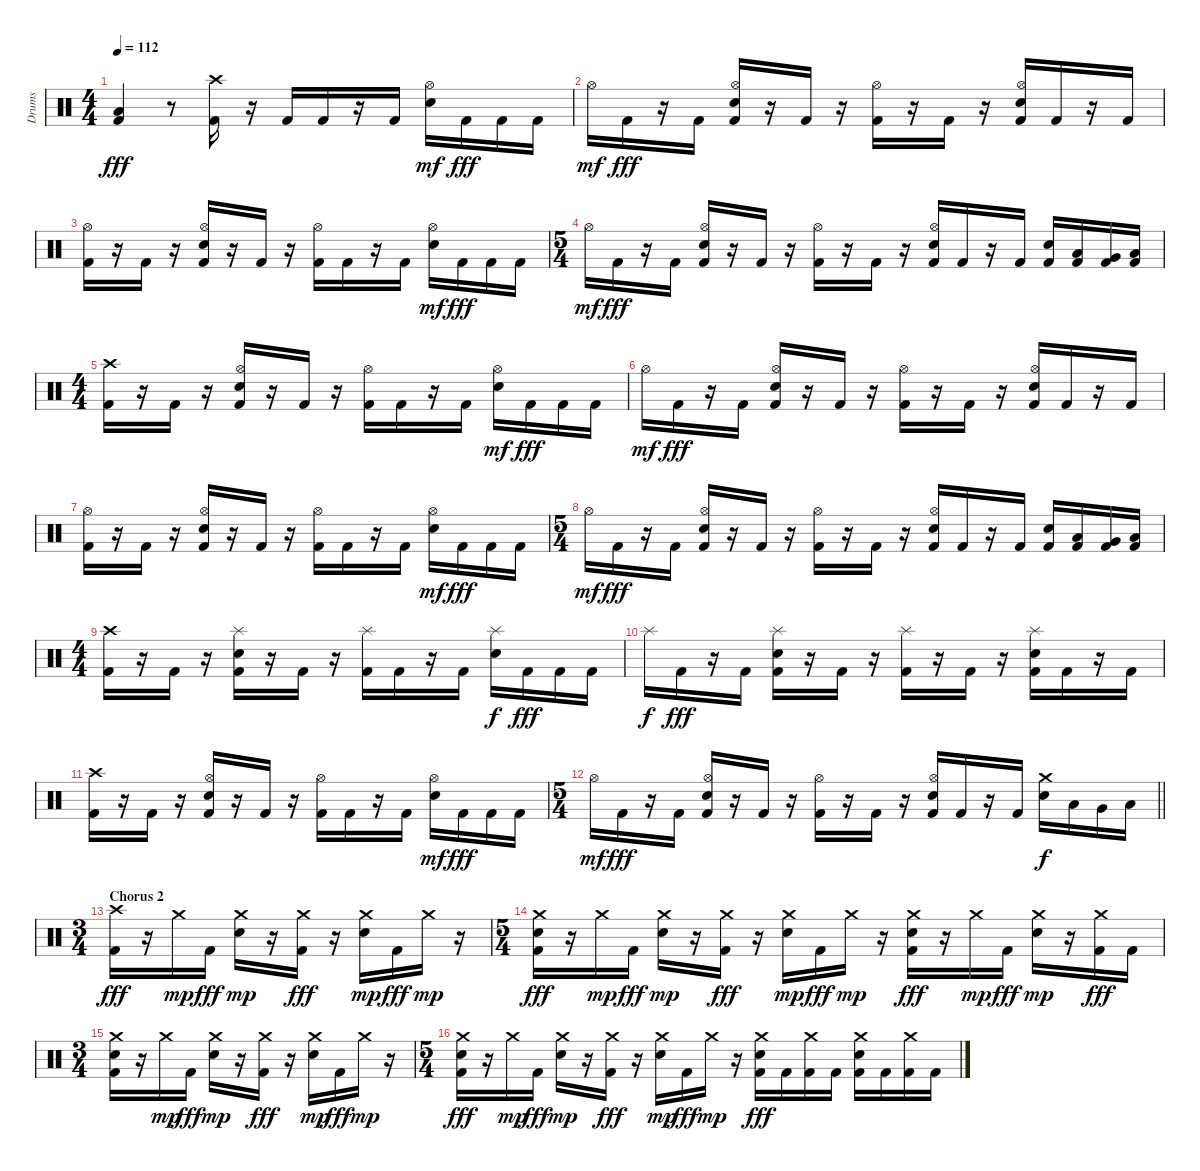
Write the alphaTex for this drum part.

\track ("Drums" "Drums") {instrument percussion}
\staff
\articulation defaults
\ts (4 4)
\tempo 112
\clef neutral
\ks c
("Low Floor Tom (hit)" "Kick (hit) 2").4{dy fff} r.8 ("Crash high (hit)" "Kick (hit) 2").16 r.16 "Kick (hit) 2".16 "Kick (hit) 2".16 r.16 "Kick (hit) 2".16 ("Hi-Hat (open)" "Electric Snare (hit)").16{dy mf} "Kick (hit) 2".16{dy fff} "Kick (hit) 2".16 "Kick (hit) 2".16 |
"Hi-Hat (open)".16{dy mf} "Kick (hit) 2".16{dy fff} r.16 "Kick (hit) 2".16 ("Hi-Hat (open)" "Electric Snare (hit)" "Kick (hit) 2").16 r.16 "Kick (hit) 2".16 r.16 ("Hi-Hat (open)" "Kick (hit) 2").16 r.16 "Kick (hit) 2".16 r.16 ("Hi-Hat (open)" "Electric Snare (hit)" "Kick (hit) 2").16 "Kick (hit) 2".16 r.16 "Kick (hit) 2".16 |
("Hi-Hat (open)" "Kick (hit) 2").16 r.16 "Kick (hit) 2".16 r.16 ("Hi-Hat (open)" "Electric Snare (hit)" "Kick (hit) 2").16 r.16 "Kick (hit) 2".16 r.16 ("Hi-Hat (open)" "Kick (hit) 2").16 "Kick (hit) 2".16 r.16 "Kick (hit) 2".16 ("Hi-Hat (open)" "Electric Snare (hit)").16{dy mf} "Kick (hit) 2".16{dy fff} "Kick (hit) 2".16 "Kick (hit) 2".16 |
\ts (5 4)
"Hi-Hat (open)".16{dy mf} "Kick (hit) 2".16{dy fff} r.16 "Kick (hit) 2".16 ("Hi-Hat (open)" "Electric Snare (hit)" "Kick (hit) 2").16 r.16 "Kick (hit) 2".16 r.16 ("Hi-Hat (open)" "Kick (hit) 2").16 r.16 "Kick (hit) 2".16 r.16 ("Hi-Hat (open)" "Electric Snare (hit)" "Kick (hit) 2").16 "Kick (hit) 2".16 r.16 "Kick (hit) 2".16 ("Electric Snare (hit)" "Kick (hit) 2").16 ("Low Tom (hit)" "Kick (hit) 2").16 ("Very Low Tom (hit)" "Kick (hit) 2").16 ("Low Floor Tom (hit)" "Kick (hit) 2").16 |
\ts (4 4)
("Crash high (hit)" "Kick (hit) 2").16 r.16 "Kick (hit) 2".16 r.16 ("Hi-Hat (open)" "Electric Snare (hit)" "Kick (hit) 2").16 r.16 "Kick (hit) 2".16 r.16 ("Hi-Hat (open)" "Kick (hit) 2").16 "Kick (hit) 2".16 r.16 "Kick (hit) 2".16 ("Hi-Hat (open)" "Electric Snare (hit)").16{dy mf} "Kick (hit) 2".16{dy fff} "Kick (hit) 2".16 "Kick (hit) 2".16 |
"Hi-Hat (open)".16{dy mf} "Kick (hit) 2".16{dy fff} r.16 "Kick (hit) 2".16 ("Hi-Hat (open)" "Electric Snare (hit)" "Kick (hit) 2").16 r.16 "Kick (hit) 2".16 r.16 ("Hi-Hat (open)" "Kick (hit) 2").16 r.16 "Kick (hit) 2".16 r.16 ("Hi-Hat (open)" "Electric Snare (hit)" "Kick (hit) 2").16 "Kick (hit) 2".16 r.16 "Kick (hit) 2".16 |
("Hi-Hat (open)" "Kick (hit) 2").16 r.16 "Kick (hit) 2".16 r.16 ("Hi-Hat (open)" "Electric Snare (hit)" "Kick (hit) 2").16 r.16 "Kick (hit) 2".16 r.16 ("Hi-Hat (open)" "Kick (hit) 2").16 "Kick (hit) 2".16 r.16 "Kick (hit) 2".16 ("Hi-Hat (open)" "Electric Snare (hit)").16{dy mf} "Kick (hit) 2".16{dy fff} "Kick (hit) 2".16 "Kick (hit) 2".16 |
\ts (5 4)
"Hi-Hat (open)".16{dy mf} "Kick (hit) 2".16{dy fff} r.16 "Kick (hit) 2".16 ("Hi-Hat (open)" "Electric Snare (hit)" "Kick (hit) 2").16 r.16 "Kick (hit) 2".16 r.16 ("Hi-Hat (open)" "Kick (hit) 2").16 r.16 "Kick (hit) 2".16 r.16 ("Hi-Hat (open)" "Electric Snare (hit)" "Kick (hit) 2").16 "Kick (hit) 2".16 r.16 "Kick (hit) 2".16 ("Electric Snare (hit)" "Kick (hit) 2").16 ("Low Tom (hit)" "Kick (hit) 2").16 ("Very Low Tom (hit)" "Kick (hit) 2").16 ("Low Floor Tom (hit)" "Kick (hit) 2").16 |
\ts (4 4)
("Crash high (hit)" "Kick (hit) 2").16 r.16 "Kick (hit) 2".16 r.16 ("Splash (hit)" "Electric Snare (hit)" "Kick (hit) 2").16 r.16 "Kick (hit) 2".16 r.16 ("Splash (hit)" "Kick (hit) 2").16 "Kick (hit) 2".16 r.16 "Kick (hit) 2".16 ("Splash (hit)" "Electric Snare (hit)").16{dy f} "Kick (hit) 2".16{dy fff} "Kick (hit) 2".16 "Kick (hit) 2".16 |
"Splash (hit)".16{dy f} "Kick (hit) 2".16{dy fff} r.16 "Kick (hit) 2".16 ("Splash (hit)" "Electric Snare (hit)" "Kick (hit) 2").16 r.16 "Kick (hit) 2".16 r.16 ("Splash (hit)" "Kick (hit) 2").16 r.16 "Kick (hit) 2".16 r.16 ("Splash (hit)" "Electric Snare (hit)" "Kick (hit) 2").16 "Kick (hit) 2".16 r.16 "Kick (hit) 2".16 |
("Crash high (hit)" "Kick (hit) 2").16 r.16 "Kick (hit) 2".16 r.16 ("Hi-Hat (open)" "Electric Snare (hit)" "Kick (hit) 2").16 r.16 "Kick (hit) 2".16 r.16 ("Hi-Hat (open)" "Kick (hit) 2").16 "Kick (hit) 2".16 r.16 "Kick (hit) 2".16 ("Hi-Hat (open)" "Electric Snare (hit)").16{dy mf} "Kick (hit) 2".16{dy fff} "Kick (hit) 2".16 "Kick (hit) 2".16 |
\ts (5 4)
\barLineRight lightlight "Hi-Hat (open)".16{dy mf} "Kick (hit) 2".16{dy fff}
r.16 "Kick (hit) 2".16 ("Hi-Hat (open)" "Electric Snare (hit)" "Kick (hit) 2").16 r.16 "Kick (hit) 2".16 r.16 ("Hi-Hat (open)" "Kick (hit) 2").16 r.16 "Kick (hit) 2".16 r.16 ("Hi-Hat (open)" "Electric Snare (hit)" "Kick (hit) 2").16 "Kick (hit) 2".16 r.16 "Kick (hit) 2".16 ("Crash medium (hit)" "Electric Snare (hit)").16{dy f} "Low Tom (hit)".16 "Very Low Tom (hit)".16 "Low Floor Tom (hit)".16 |
\ts (3 4)
\section ("" "Chorus 2")
("Crash high (hit)" "Kick (hit) 2").16{dy fff} r.16 "Crash medium (hit)".16{dy mp} "Kick (hit) 2".16{dy fff} ("Crash medium (hit)" "Electric Snare (hit)").16{dy mp} r.16 ("Crash medium (hit)" "Kick (hit) 2").16{dy fff} r.16 ("Crash medium (hit)" "Electric Snare (hit)").16{dy mp} "Kick (hit) 2".16{dy fff} "Crash medium (hit)".16{dy mp} r.16 |
\ts (5 4)
("Crash medium (hit)" "Electric Snare (hit)" "Kick (hit) 2").16{dy fff} r.16 "Crash medium (hit)".16{dy mp} "Kick (hit) 2".16{dy fff} ("Crash medium (hit)" "Electric Snare (hit)").16{dy mp} r.16 ("Crash medium (hit)" "Kick (hit) 2").16{dy fff} r.16 ("Crash medium (hit)" "Electric Snare (hit)").16{dy mp} "Kick (hit) 2".16{dy fff} "Crash medium (hit)".16{dy mp} r.16 ("Crash medium (hit)" "Electric Snare (hit)" "Kick (hit) 2").16{dy fff} r.16 "Crash medium (hit)".16{dy mp} "Kick (hit) 2".16{dy fff} ("Crash medium (hit)" "Electric Snare (hit)").16{dy mp} r.16 ("Crash medium (hit)" "Kick (hit) 2").16{dy fff} "Kick (hit) 2".16 |
\ts (3 4)
("Crash medium (hit)" "Electric Snare (hit)" "Kick (hit) 2").16 r.16 "Crash medium (hit)".16{dy mp} "Kick (hit) 2".16{dy fff} ("Crash medium (hit)" "Electric Snare (hit)").16{dy mp} r.16 ("Crash medium (hit)" "Kick (hit) 2").16{dy fff} r.16 ("Crash medium (hit)" "Electric Snare (hit)").16{dy mp} "Kick (hit) 2".16{dy fff} "Crash medium (hit)".16{dy mp} r.16 |
\ts (5 4)
("Crash medium (hit)" "Electric Snare (hit)" "Kick (hit) 2").16{dy fff} r.16 "Crash medium (hit)".16{dy mp} "Kick (hit) 2".16{dy fff} ("Crash medium (hit)" "Electric Snare (hit)").16{dy mp} r.16 ("Crash medium (hit)" "Kick (hit) 2").16{dy fff} r.16 ("Crash medium (hit)" "Electric Snare (hit)").16{dy mp} "Kick (hit) 2".16{dy fff} "Crash medium (hit)".16{dy mp} r.16 ("Crash medium (hit)" "Electric Snare (hit)" "Kick (hit) 2").16{dy fff} "Kick (hit) 2".16 ("Crash medium (hit)" "Kick (hit) 2").16 "Kick (hit) 2".16 ("Crash medium (hit)" "Electric Snare (hit)" "Kick (hit) 2").16 "Kick (hit) 2".16 ("Crash medium (hit)" "Kick (hit) 2").16 "Kick (hit) 2".16
